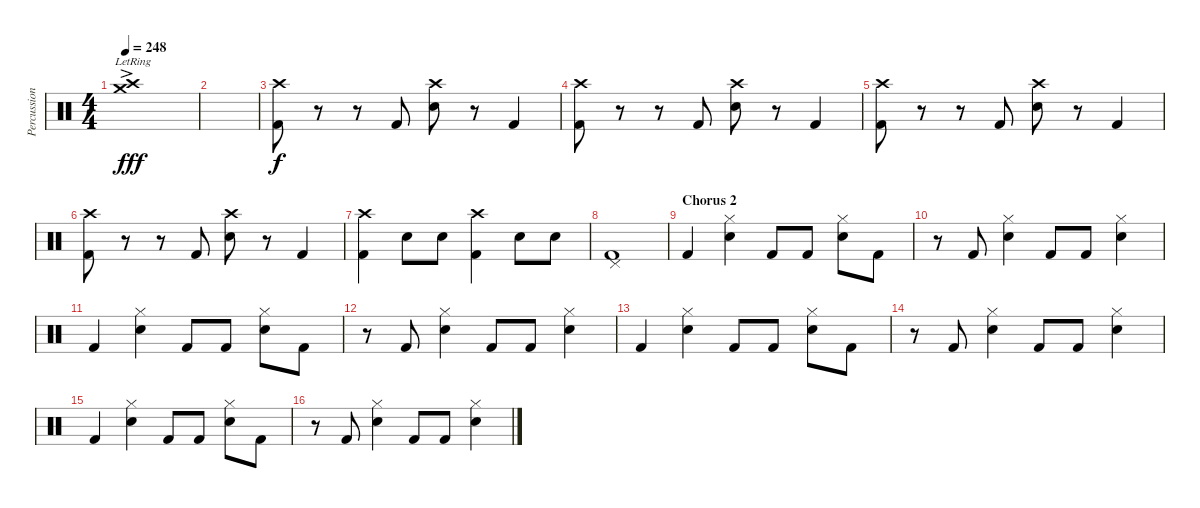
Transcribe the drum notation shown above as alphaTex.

\track ("Percussion" "Percussion") {instrument percussion}
\staff {score}
\articulation defaults
\ts (4 4)
\tempo 248
\clef neutral
\ks c
("Crash high (hit)"{ac lr} "Crash medium (hit)"{ac lr}).1{dy fff} |
|
("Crash high (hit)" "Kick (hit) 2").8{dy f} r.8 r.8 "Kick (hit) 2".8 ("Crash high (hit)" "Snare (hit) 2").8 r.8 "Kick (hit) 2".4 |
("Crash high (hit)" "Kick (hit) 2").8 r.8 r.8 "Kick (hit) 2".8 ("Crash high (hit)" "Snare (hit) 2").8 r.8 "Kick (hit) 2".4 |
("Crash high (hit)" "Kick (hit) 2").8 r.8 r.8 "Kick (hit) 2".8 ("Crash high (hit)" "Snare (hit) 2").8 r.8 "Kick (hit) 2".4 |
("Crash high (hit)" "Kick (hit) 2").8 r.8 r.8 "Kick (hit) 2".8 ("Crash high (hit)" "Snare (hit) 2").8 r.8 "Kick (hit) 2".4 |
("Crash high (hit)" "Kick (hit) 2").4 "Snare (hit) 2".8 "Snare (hit) 2".8 ("Crash high (hit)" "Kick (hit) 2").4 "Snare (hit) 2".8 "Snare (hit) 2".8 |
("Pedal Hi-Hat (hit)" "Kick (hit) 2").1 |
\section ("" "Chorus 2")
"Kick (hit) 2".4 ("Hi-Hat (closed)" "Snare (hit) 2").4 "Kick (hit) 2".8 "Kick (hit) 2".8 ("Hi-Hat (closed)" "Snare (hit) 2").8 "Kick (hit) 2".8 |
r.8 "Kick (hit) 2".8 ("Hi-Hat (closed)" "Snare (hit) 2").4 "Kick (hit) 2".8 "Kick (hit) 2".8 ("Hi-Hat (closed)" "Snare (hit) 2").4 |
"Kick (hit) 2".4 ("Hi-Hat (closed)" "Snare (hit) 2").4 "Kick (hit) 2".8 "Kick (hit) 2".8 ("Hi-Hat (closed)" "Snare (hit) 2").8 "Kick (hit) 2".8 |
r.8 "Kick (hit) 2".8 ("Hi-Hat (closed)" "Snare (hit) 2").4 "Kick (hit) 2".8 "Kick (hit) 2".8 ("Hi-Hat (closed)" "Snare (hit) 2").4 |
"Kick (hit) 2".4 ("Hi-Hat (closed)" "Snare (hit) 2").4 "Kick (hit) 2".8 "Kick (hit) 2".8 ("Hi-Hat (closed)" "Snare (hit) 2").8 "Kick (hit) 2".8 |
r.8 "Kick (hit) 2".8 ("Hi-Hat (closed)" "Snare (hit) 2").4 "Kick (hit) 2".8 "Kick (hit) 2".8 ("Hi-Hat (closed)" "Snare (hit) 2").4 |
"Kick (hit) 2".4 ("Hi-Hat (closed)" "Snare (hit) 2").4 "Kick (hit) 2".8 "Kick (hit) 2".8 ("Hi-Hat (closed)" "Snare (hit) 2").8 "Kick (hit) 2".8 |
r.8 "Kick (hit) 2".8 ("Hi-Hat (closed)" "Snare (hit) 2").4 "Kick (hit) 2".8 "Kick (hit) 2".8 ("Hi-Hat (closed)" "Snare (hit) 2").4
